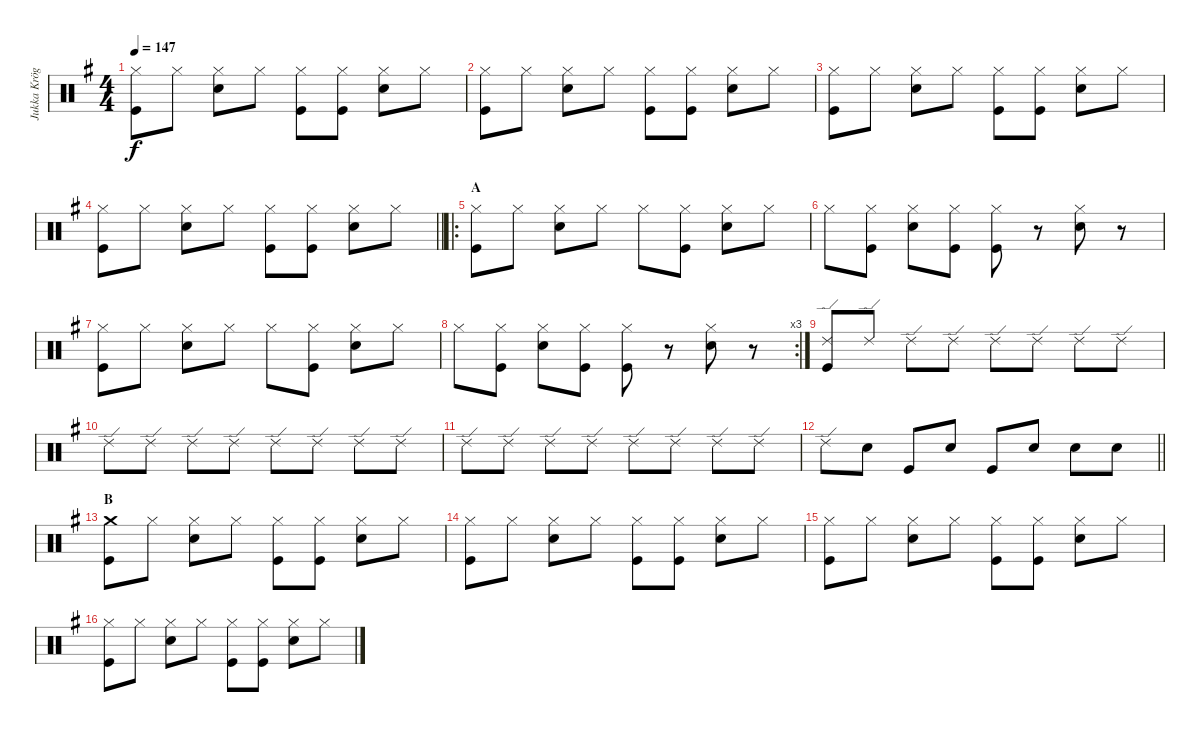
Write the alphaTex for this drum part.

\track ("Jukka Kröger" "Jukka Krög") {instrument percussion}
\staff {score}
\articulation defaults
\ts (4 4)
\tempo 147
\clef neutral
\ks eminor
("Hi-Hat (closed)" "Kick (hit)").8{dy f} "Hi-Hat (closed)".8 ("Hi-Hat (closed)" "Snare (hit) 2").8 "Hi-Hat (closed)".8 ("Hi-Hat (closed)" "Kick (hit)").8 ("Hi-Hat (closed)" "Kick (hit)").8 ("Hi-Hat (closed)" "Snare (hit) 2").8 "Hi-Hat (closed)".8 |
("Hi-Hat (closed)" "Kick (hit)").8 "Hi-Hat (closed)".8 ("Hi-Hat (closed)" "Snare (hit) 2").8 "Hi-Hat (closed)".8 ("Hi-Hat (closed)" "Kick (hit)").8 ("Hi-Hat (closed)" "Kick (hit)").8 ("Hi-Hat (closed)" "Snare (hit) 2").8 "Hi-Hat (closed)".8 |
("Hi-Hat (closed)" "Kick (hit)").8 "Hi-Hat (closed)".8 ("Hi-Hat (closed)" "Snare (hit) 2").8 "Hi-Hat (closed)".8 ("Hi-Hat (closed)" "Kick (hit)").8 ("Hi-Hat (closed)" "Kick (hit)").8 ("Hi-Hat (closed)" "Snare (hit) 2").8 "Hi-Hat (closed)".8 |
\barLineRight lightlight
("Hi-Hat (closed)" "Kick (hit)").8 "Hi-Hat (closed)".8 ("Hi-Hat (closed)" "Snare (hit) 2").8 "Hi-Hat (closed)".8 ("Hi-Hat (closed)" "Kick (hit)").8 ("Hi-Hat (closed)" "Kick (hit)").8 ("Hi-Hat (closed)" "Snare (hit) 2").8 "Hi-Hat (closed)".8 |
\ro
\section ("" "A")
("Hi-Hat (closed)" "Kick (hit)").8 "Hi-Hat (closed)".8 ("Hi-Hat (closed)" "Snare (hit) 2").8 "Hi-Hat (closed)".8 "Hi-Hat (closed)".8 ("Hi-Hat (closed)" "Kick (hit)").8 ("Hi-Hat (closed)" "Snare (hit) 2").8 "Hi-Hat (closed)".8 |
"Hi-Hat (closed)".8 ("Hi-Hat (closed)" "Kick (hit)").8 ("Hi-Hat (closed)" "Snare (hit) 2").8 ("Hi-Hat (closed)" "Kick (hit)").8 ("Hi-Hat (closed)" "Kick (hit)").8 r.8 ("Hi-Hat (closed)" "Snare (hit) 2").8 r.8 |
("Hi-Hat (closed)" "Kick (hit)").8 "Hi-Hat (closed)".8 ("Hi-Hat (closed)" "Snare (hit) 2").8 "Hi-Hat (closed)".8 "Hi-Hat (closed)".8 ("Hi-Hat (closed)" "Kick (hit)").8 ("Hi-Hat (closed)" "Snare (hit) 2").8 "Hi-Hat (closed)".8 |
\rc 3 "Hi-Hat (closed)".8
("Hi-Hat (closed)" "Kick (hit)").8 ("Hi-Hat (closed)" "Snare (hit) 2").8 ("Hi-Hat (closed)" "Kick (hit)").8 ("Hi-Hat (closed)" "Kick (hit)").8 r.8 ("Hi-Hat (closed)" "Snare (hit) 2").8 r.8 |
("Kick (hit)" "Ride (edge) 2").8 "Ride (edge) 2".8 "Ride (edge) 2".8 "Ride (edge) 2".8 "Ride (edge) 2".8 "Ride (edge) 2".8 "Ride (edge) 2".8 "Ride (edge) 2".8 |
"Ride (edge) 2".8 "Ride (edge) 2".8 "Ride (edge) 2".8 "Ride (edge) 2".8 "Ride (edge) 2".8 "Ride (edge) 2".8 "Ride (edge) 2".8 "Ride (edge) 2".8 |
"Ride (edge) 2".8 "Ride (edge) 2".8 "Ride (edge) 2".8 "Ride (edge) 2".8 "Ride (edge) 2".8 "Ride (edge) 2".8 "Ride (edge) 2".8 "Ride (edge) 2".8 |
\barLineRight lightlight "Ride (edge) 2".8 "Snare (hit) 2".8 "Kick (hit)".8 "Snare (hit) 2".8 "Kick (hit)".8 "Snare (hit) 2".8 "Snare (hit) 2".8 "Snare (hit) 2".8
|
\section ("" "B")
("Crash medium (hit)" "Kick (hit)").8 "Hi-Hat (closed)".8 ("Hi-Hat (closed)" "Snare (hit) 2").8 "Hi-Hat (closed)".8 ("Hi-Hat (closed)" "Kick (hit)").8 ("Hi-Hat (closed)" "Kick (hit)").8 ("Hi-Hat (closed)" "Snare (hit) 2").8 "Hi-Hat (closed)".8 |
("Hi-Hat (closed)" "Kick (hit)").8 "Hi-Hat (closed)".8 ("Hi-Hat (closed)" "Snare (hit) 2").8 "Hi-Hat (closed)".8 ("Hi-Hat (closed)" "Kick (hit)").8 ("Hi-Hat (closed)" "Kick (hit)").8 ("Hi-Hat (closed)" "Snare (hit) 2").8 "Hi-Hat (closed)".8 |
("Hi-Hat (closed)" "Kick (hit)").8 "Hi-Hat (closed)".8 ("Hi-Hat (closed)" "Snare (hit) 2").8 "Hi-Hat (closed)".8 ("Hi-Hat (closed)" "Kick (hit)").8 ("Hi-Hat (closed)" "Kick (hit)").8 ("Hi-Hat (closed)" "Snare (hit) 2").8 "Hi-Hat (closed)".8 |
("Hi-Hat (closed)" "Kick (hit)").8 "Hi-Hat (closed)".8 ("Hi-Hat (closed)" "Snare (hit) 2").8 "Hi-Hat (closed)".8 ("Hi-Hat (closed)" "Kick (hit)").8 ("Hi-Hat (closed)" "Kick (hit)").8 ("Hi-Hat (closed)" "Snare (hit) 2").8 "Hi-Hat (closed)".8
